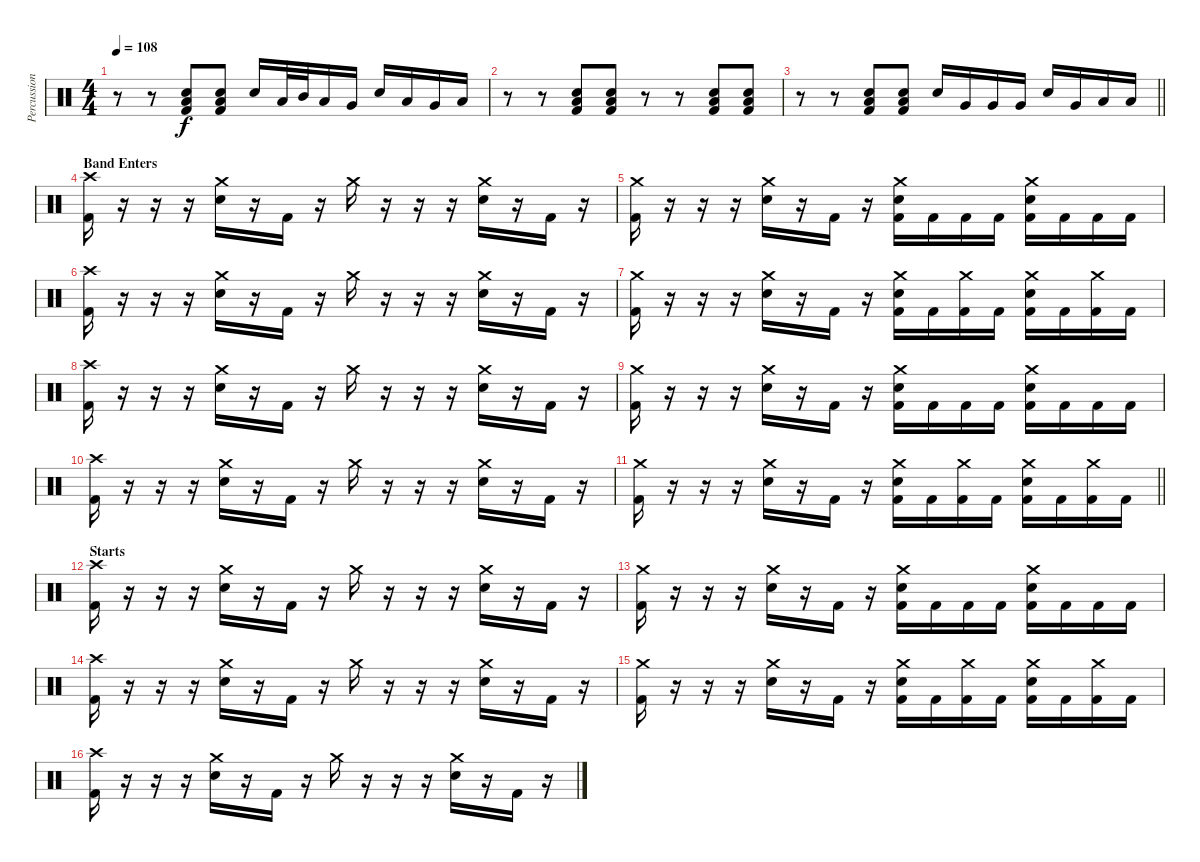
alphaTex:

\track ("Percussion" "Percussion") {instrument percussion}
\staff {score}
\articulation defaults
\ts (4 4)
\tempo 108
\clef neutral
\ks c
r.8{dy f} r.8 ("Low Floor Tom (hit)" "Electric Snare (hit)" "Kick (hit) 2").8 ("Low Floor Tom (hit)" "Electric Snare (hit)" "Kick (hit) 2").8 "Snare (hit) 2".16 "Low Tom (hit)".32 "Mid Tom (hit)".32 "Low Tom (hit)".16 "Very Low Tom (hit)".16 "Snare (hit) 2".16 "Low Tom (hit)".16 "Very Low Tom (hit)".16 "Low Floor Tom (hit)".16 |
r.8 r.8 ("Low Floor Tom (hit)" "Electric Snare (hit)" "Kick (hit) 2").8 ("Low Floor Tom (hit)" "Electric Snare (hit)" "Kick (hit) 2").8 r.8 r.8 ("Low Floor Tom (hit)" "Electric Snare (hit)" "Kick (hit) 2").8 ("Low Floor Tom (hit)" "Electric Snare (hit)" "Kick (hit) 2").8 |
\barLineRight lightlight
r.8 r.8 ("Low Floor Tom (hit)" "Electric Snare (hit)" "Kick (hit) 2").8 ("Low Floor Tom (hit)" "Electric Snare (hit)" "Kick (hit) 2").8 "Snare (hit) 2".16 "Very Low Tom (hit)".16 "Very Low Tom (hit)".16 "Very Low Tom (hit)".16 "Snare (hit) 2".16 "Very Low Tom (hit)".16 "Low Floor Tom (hit)".16 "Low Floor Tom (hit)".16 |
\section ("" "Band Enters")
("Crash high (hit)" "Kick (hit) 2").16 r.16 r.16 r.16 ("Crash medium (hit)" "Electric Snare (hit)").16 r.16 "Kick (hit) 2".16 r.16 "Crash medium (hit)".16 r.16 r.16 r.16 ("Crash medium (hit)" "Electric Snare (hit)").16 r.16 "Kick (hit) 2".16 r.16 |
("Crash medium (hit)" "Kick (hit) 2").16 r.16 r.16 r.16 ("Crash medium (hit)" "Electric Snare (hit)").16 r.16 "Kick (hit) 2".16 r.16 ("Crash medium (hit)" "Electric Snare (hit)" "Kick (hit) 2").16 "Kick (hit) 2".16 "Kick (hit) 2".16 "Kick (hit) 2".16 ("Crash medium (hit)" "Electric Snare (hit)" "Kick (hit) 2").16 "Kick (hit) 2".16 "Kick (hit) 2".16 "Kick (hit) 2".16 |
("Crash high (hit)" "Kick (hit) 2").16 r.16 r.16 r.16 ("Crash medium (hit)" "Electric Snare (hit)").16 r.16 "Kick (hit) 2".16 r.16 "Crash medium (hit)".16 r.16 r.16 r.16 ("Crash medium (hit)" "Electric Snare (hit)").16 r.16 "Kick (hit) 2".16 r.16 |
("Crash medium (hit)" "Kick (hit) 2").16 r.16 r.16 r.16 ("Crash medium (hit)" "Electric Snare (hit)").16 r.16 "Kick (hit) 2".16 r.16 ("Crash medium (hit)" "Electric Snare (hit)" "Kick (hit) 2").16 "Kick (hit) 2".16 ("Crash medium (hit)" "Kick (hit) 2").16 "Kick (hit) 2".16 ("Crash medium (hit)" "Electric Snare (hit)" "Kick (hit) 2").16 "Kick (hit) 2".16 ("Crash medium (hit)" "Kick (hit) 2").16 "Kick (hit) 2".16 |
("Crash high (hit)" "Kick (hit) 2").16 r.16 r.16 r.16 ("Crash medium (hit)" "Electric Snare (hit)").16 r.16 "Kick (hit) 2".16 r.16 "Crash medium (hit)".16 r.16 r.16 r.16 ("Crash medium (hit)" "Electric Snare (hit)").16 r.16 "Kick (hit) 2".16 r.16 |
("Crash medium (hit)" "Kick (hit) 2").16 r.16 r.16 r.16 ("Crash medium (hit)" "Electric Snare (hit)").16 r.16 "Kick (hit) 2".16 r.16 ("Crash medium (hit)" "Electric Snare (hit)" "Kick (hit) 2").16 "Kick (hit) 2".16 "Kick (hit) 2".16 "Kick (hit) 2".16 ("Crash medium (hit)" "Electric Snare (hit)" "Kick (hit) 2").16 "Kick (hit) 2".16 "Kick (hit) 2".16 "Kick (hit) 2".16 |
("Crash high (hit)" "Kick (hit) 2").16 r.16 r.16 r.16 ("Crash medium (hit)" "Electric Snare (hit)").16 r.16 "Kick (hit) 2".16 r.16 "Crash medium (hit)".16 r.16 r.16 r.16 ("Crash medium (hit)" "Electric Snare (hit)").16 r.16 "Kick (hit) 2".16 r.16 |
\barLineRight lightlight
("Crash medium (hit)" "Kick (hit) 2").16 r.16 r.16 r.16 ("Crash medium (hit)" "Electric Snare (hit)").16 r.16 "Kick (hit) 2".16 r.16 ("Crash medium (hit)" "Electric Snare (hit)" "Kick (hit) 2").16 "Kick (hit) 2".16 ("Crash medium (hit)" "Kick (hit) 2").16 "Kick (hit) 2".16 ("Crash medium (hit)" "Electric Snare (hit)" "Kick (hit) 2").16 "Kick (hit) 2".16 ("Crash medium (hit)" "Kick (hit) 2").16 "Kick (hit) 2".16 |
\section ("" "Starts")
("Crash high (hit)" "Kick (hit) 2").16 r.16 r.16 r.16 ("Crash medium (hit)" "Electric Snare (hit)").16 r.16 "Kick (hit) 2".16 r.16 "Crash medium (hit)".16 r.16 r.16 r.16 ("Crash medium (hit)" "Electric Snare (hit)").16 r.16 "Kick (hit) 2".16 r.16 |
("Crash medium (hit)" "Kick (hit) 2").16 r.16 r.16 r.16 ("Crash medium (hit)" "Electric Snare (hit)").16 r.16 "Kick (hit) 2".16 r.16 ("Crash medium (hit)" "Electric Snare (hit)" "Kick (hit) 2").16 "Kick (hit) 2".16 "Kick (hit) 2".16 "Kick (hit) 2".16 ("Crash medium (hit)" "Electric Snare (hit)" "Kick (hit) 2").16 "Kick (hit) 2".16 "Kick (hit) 2".16 "Kick (hit) 2".16 |
("Crash high (hit)" "Kick (hit) 2").16 r.16 r.16 r.16 ("Crash medium (hit)" "Electric Snare (hit)").16 r.16 "Kick (hit) 2".16 r.16 "Crash medium (hit)".16 r.16 r.16 r.16 ("Crash medium (hit)" "Electric Snare (hit)").16 r.16 "Kick (hit) 2".16 r.16 |
("Crash medium (hit)" "Kick (hit) 2").16 r.16 r.16 r.16 ("Crash medium (hit)" "Electric Snare (hit)").16 r.16 "Kick (hit) 2".16 r.16 ("Crash medium (hit)" "Electric Snare (hit)" "Kick (hit) 2").16 "Kick (hit) 2".16 ("Crash medium (hit)" "Kick (hit) 2").16 "Kick (hit) 2".16 ("Crash medium (hit)" "Electric Snare (hit)" "Kick (hit) 2").16 "Kick (hit) 2".16 ("Crash medium (hit)" "Kick (hit) 2").16 "Kick (hit) 2".16 |
("Crash high (hit)" "Kick (hit) 2").16 r.16 r.16 r.16 ("Crash medium (hit)" "Electric Snare (hit)").16 r.16 "Kick (hit) 2".16 r.16 "Crash medium (hit)".16 r.16 r.16 r.16 ("Crash medium (hit)" "Electric Snare (hit)").16 r.16 "Kick (hit) 2".16 r.16
